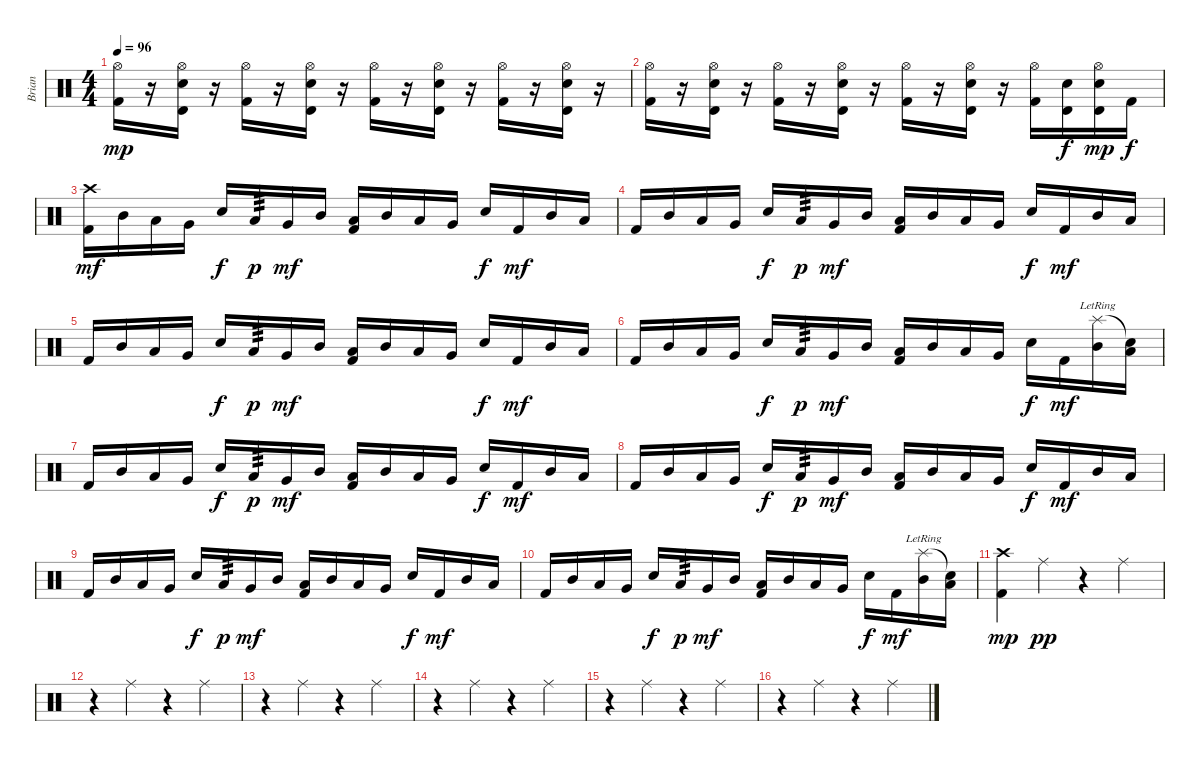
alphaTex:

\track ("Brian" "Brian") {instrument percussion}
\staff {score}
\articulation defaults
\ts (4 4)
\tempo 96
\clef neutral
\ks c
("Hi-Hat (open)" "Kick (hit) 2").16{dy mp} r.16 ("Hi-Hat (open)" "Timbale high (hit)" "Electric Snare (hit)").16 r.16 ("Hi-Hat (open)" "Kick (hit) 2").16 r.16 ("Hi-Hat (open)" "Timbale high (hit)" "Electric Snare (hit)").16 r.16 ("Hi-Hat (open)" "Kick (hit) 2").16 r.16 ("Hi-Hat (open)" "Timbale high (hit)" "Electric Snare (hit)").16 r.16 ("Hi-Hat (open)" "Kick (hit) 2").16 r.16 ("Hi-Hat (open)" "Timbale high (hit)" "Electric Snare (hit)").16 r.16 |
("Hi-Hat (open)" "Kick (hit) 2").16 r.16 ("Hi-Hat (open)" "Timbale high (hit)" "Electric Snare (hit)").16 r.16 ("Hi-Hat (open)" "Kick (hit) 2").16 r.16 ("Hi-Hat (open)" "Timbale high (hit)" "Electric Snare (hit)").16 r.16 ("Hi-Hat (open)" "Kick (hit) 2").16 r.16 ("Hi-Hat (open)" "Timbale high (hit)" "Electric Snare (hit)").16 r.16 ("Hi-Hat (open)" "Kick (hit) 2").16 ("Timbale high (hit)" "Electric Snare (hit)").16{dy f} ("Hi-Hat (open)" "Timbale high (hit)" "Electric Snare (hit)").16{dy mp} "Kick (hit) 2".16{dy f} |
("Crash high (hit)" "Kick (hit) 2").16{dy mf} "Mid Tom (hit)".16 "Low Tom (hit)".16 "Very Low Tom (hit)".16 "Electric Snare (hit)".16{dy f} "Low Tom (hit)".16{tp 3 dy p} "Very Low Tom (hit)".16{dy mf} "Mid Tom (hit)".16 ("Low Tom (hit)" "Kick (hit) 2").16 "Mid Tom (hit)".16 "Low Tom (hit)".16 "Very Low Tom (hit)".16 "Electric Snare (hit)".16{dy f} "Kick (hit) 2".16{dy mf} "Mid Tom (hit)".16 "Low Tom (hit)".16 |
"Kick (hit) 2".16 "Mid Tom (hit)".16 "Low Tom (hit)".16 "Very Low Tom (hit)".16 "Electric Snare (hit)".16{dy f} "Low Tom (hit)".16{tp 3 dy p} "Very Low Tom (hit)".16{dy mf} "Mid Tom (hit)".16 ("Low Tom (hit)" "Kick (hit) 2").16 "Mid Tom (hit)".16 "Low Tom (hit)".16 "Very Low Tom (hit)".16 "Electric Snare (hit)".16{dy f} "Kick (hit) 2".16{dy mf} "Mid Tom (hit)".16 "Low Tom (hit)".16 |
"Kick (hit) 2".16 "Mid Tom (hit)".16 "Low Tom (hit)".16 "Very Low Tom (hit)".16 "Electric Snare (hit)".16{dy f} "Low Tom (hit)".16{tp 3 dy p} "Very Low Tom (hit)".16{dy mf} "Mid Tom (hit)".16 ("Low Tom (hit)" "Kick (hit) 2").16 "Mid Tom (hit)".16 "Low Tom (hit)".16 "Very Low Tom (hit)".16 "Electric Snare (hit)".16{dy f} "Kick (hit) 2".16{dy mf} "Mid Tom (hit)".16 "Low Tom (hit)".16 |
"Kick (hit) 2".16 "Mid Tom (hit)".16 "Low Tom (hit)".16 "Very Low Tom (hit)".16 "Electric Snare (hit)".16{dy f} "Low Tom (hit)".16{tp 3 dy p} "Very Low Tom (hit)".16{dy mf} "Mid Tom (hit)".16 ("Low Tom (hit)" "Kick (hit) 2").16 "Mid Tom (hit)".16 "Low Tom (hit)".16 "Very Low Tom (hit)".16 "Electric Snare (hit)".16{dy f} "Kick (hit) 2".16{dy mf} ("Splash (hit)"{lr} "Mid Tom (hit)").16 ("Snare (hit)"{t} "Low Tom (hit)").16 |
"Kick (hit) 2".16 "Mid Tom (hit)".16 "Low Tom (hit)".16 "Very Low Tom (hit)".16 "Electric Snare (hit)".16{dy f} "Low Tom (hit)".16{tp 3 dy p} "Very Low Tom (hit)".16{dy mf} "Mid Tom (hit)".16 ("Low Tom (hit)" "Kick (hit) 2").16 "Mid Tom (hit)".16 "Low Tom (hit)".16 "Very Low Tom (hit)".16 "Electric Snare (hit)".16{dy f} "Kick (hit) 2".16{dy mf} "Mid Tom (hit)".16 "Low Tom (hit)".16 |
"Kick (hit) 2".16 "Mid Tom (hit)".16 "Low Tom (hit)".16 "Very Low Tom (hit)".16 "Electric Snare (hit)".16{dy f} "Low Tom (hit)".16{tp 3 dy p} "Very Low Tom (hit)".16{dy mf} "Mid Tom (hit)".16 ("Low Tom (hit)" "Kick (hit) 2").16 "Mid Tom (hit)".16 "Low Tom (hit)".16 "Very Low Tom (hit)".16 "Electric Snare (hit)".16{dy f} "Kick (hit) 2".16{dy mf} "Mid Tom (hit)".16 "Low Tom (hit)".16 |
"Kick (hit) 2".16 "Mid Tom (hit)".16 "Low Tom (hit)".16 "Very Low Tom (hit)".16 "Electric Snare (hit)".16{dy f} "Low Tom (hit)".16{tp 3 dy p} "Very Low Tom (hit)".16{dy mf} "Mid Tom (hit)".16 ("Low Tom (hit)" "Kick (hit) 2").16 "Mid Tom (hit)".16 "Low Tom (hit)".16 "Very Low Tom (hit)".16 "Electric Snare (hit)".16{dy f} "Kick (hit) 2".16{dy mf} "Mid Tom (hit)".16 "Low Tom (hit)".16 |
"Kick (hit) 2".16 "Mid Tom (hit)".16 "Low Tom (hit)".16 "Very Low Tom (hit)".16 "Electric Snare (hit)".16{dy f} "Low Tom (hit)".16{tp 3 dy p} "Very Low Tom (hit)".16{dy mf} "Mid Tom (hit)".16 ("Low Tom (hit)" "Kick (hit) 2").16 "Mid Tom (hit)".16 "Low Tom (hit)".16 "Very Low Tom (hit)".16 "Electric Snare (hit)".16{dy f} "Kick (hit) 2".16{dy mf} ("Splash (hit)"{lr} "Mid Tom (hit)").16 ("Snare (hit)"{t} "Low Tom (hit)").16 |
("Crash high (hit)" "Kick (hit) 2").4{dy mp} "Ride (middle)".4{dy pp} r.4 "Ride (middle)".4 |
r.4 "Ride (middle)".4 r.4 "Ride (middle)".4 |
r.4 "Ride (middle)".4 r.4 "Ride (middle)".4 |
r.4 "Ride (middle)".4 r.4 "Ride (middle)".4 |
r.4 "Ride (middle)".4 r.4 "Ride (middle)".4 |
r.4 "Ride (middle)".4 r.4 "Ride (middle)".4
